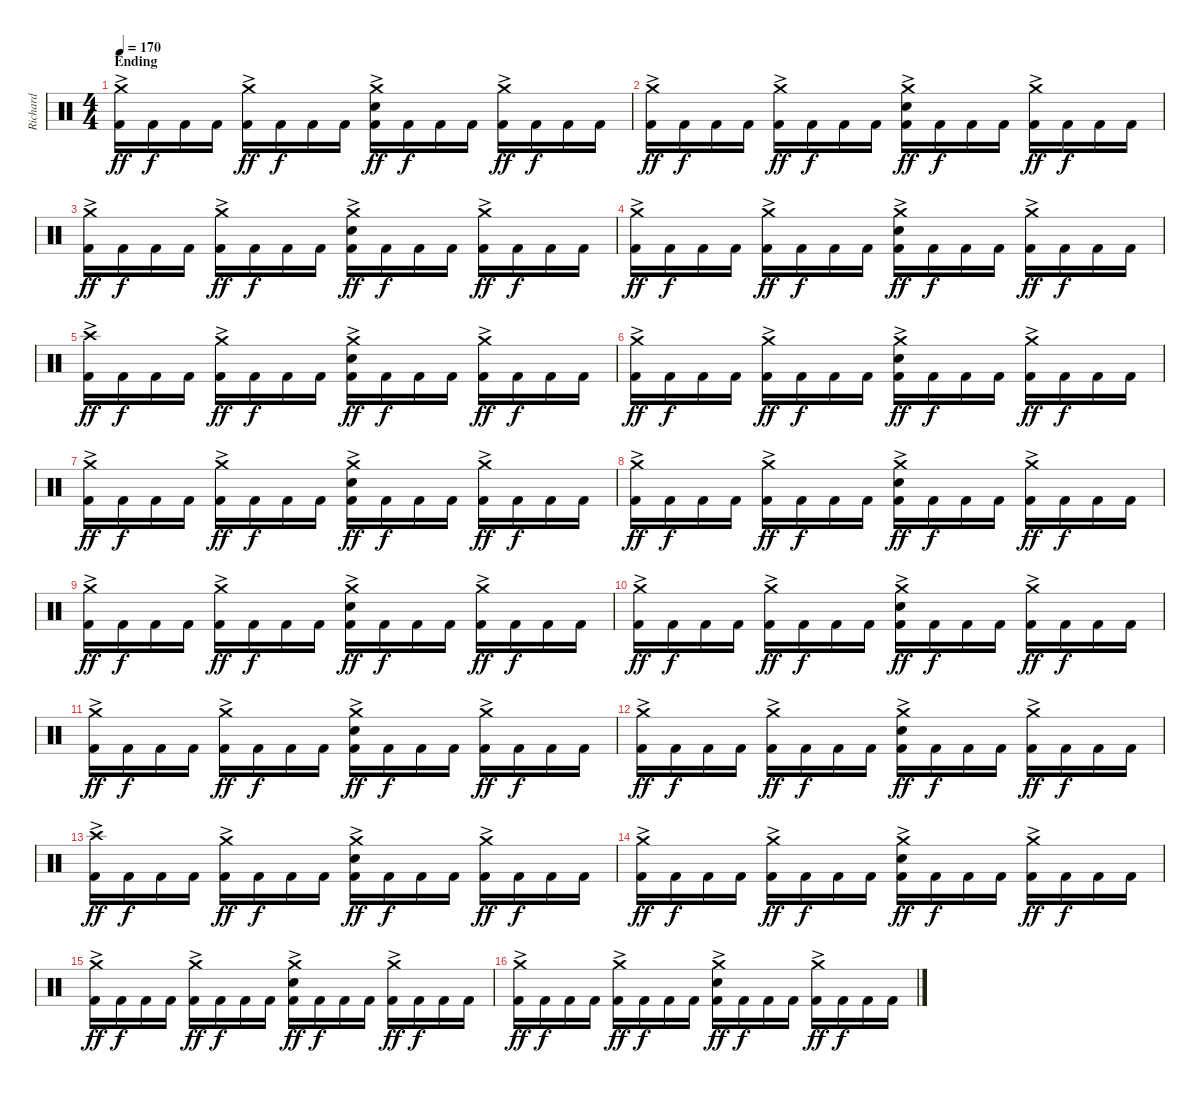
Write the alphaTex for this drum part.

\track ("Richard" "Richard") {instrument percussion}
\staff {score}
\articulation defaults
\ts (4 4)
\section ("" "Ending")
\tempo 170
\clef neutral
\ks c
("Crash medium (hit)" "Kick (hit) 2"{ac}).16{dy ff} "Kick (hit) 2".16{dy f} "Kick (hit) 2".16 "Kick (hit) 2".16 ("Crash medium (hit)" "Kick (hit) 2"{ac}).16{dy ff} "Kick (hit) 2".16{dy f} "Kick (hit) 2".16 "Kick (hit) 2".16 ("Crash medium (hit)" "Electric Snare (hit)" "Kick (hit) 2"{ac}).16{dy ff} "Kick (hit) 2".16{dy f} "Kick (hit) 2".16 "Kick (hit) 2".16 ("Crash medium (hit)" "Kick (hit) 2"{ac}).16{dy ff} "Kick (hit) 2".16{dy f} "Kick (hit) 2".16 "Kick (hit) 2".16 |
("Crash medium (hit)" "Kick (hit) 2"{ac}).16{dy ff} "Kick (hit) 2".16{dy f} "Kick (hit) 2".16 "Kick (hit) 2".16 ("Crash medium (hit)" "Kick (hit) 2"{ac}).16{dy ff} "Kick (hit) 2".16{dy f} "Kick (hit) 2".16 "Kick (hit) 2".16 ("Crash medium (hit)" "Electric Snare (hit)" "Kick (hit) 2"{ac}).16{dy ff} "Kick (hit) 2".16{dy f} "Kick (hit) 2".16 "Kick (hit) 2".16 ("Crash medium (hit)" "Kick (hit) 2"{ac}).16{dy ff} "Kick (hit) 2".16{dy f} "Kick (hit) 2".16 "Kick (hit) 2".16 |
("Crash medium (hit)" "Kick (hit) 2"{ac}).16{dy ff} "Kick (hit) 2".16{dy f} "Kick (hit) 2".16 "Kick (hit) 2".16 ("Crash medium (hit)" "Kick (hit) 2"{ac}).16{dy ff} "Kick (hit) 2".16{dy f} "Kick (hit) 2".16 "Kick (hit) 2".16 ("Crash medium (hit)" "Electric Snare (hit)" "Kick (hit) 2"{ac}).16{dy ff} "Kick (hit) 2".16{dy f} "Kick (hit) 2".16 "Kick (hit) 2".16 ("Crash medium (hit)" "Kick (hit) 2"{ac}).16{dy ff} "Kick (hit) 2".16{dy f} "Kick (hit) 2".16 "Kick (hit) 2".16 |
("Crash medium (hit)" "Kick (hit) 2"{ac}).16{dy ff} "Kick (hit) 2".16{dy f} "Kick (hit) 2".16 "Kick (hit) 2".16 ("Crash medium (hit)" "Kick (hit) 2"{ac}).16{dy ff} "Kick (hit) 2".16{dy f} "Kick (hit) 2".16 "Kick (hit) 2".16 ("Crash medium (hit)" "Electric Snare (hit)" "Kick (hit) 2"{ac}).16{dy ff} "Kick (hit) 2".16{dy f} "Kick (hit) 2".16 "Kick (hit) 2".16 ("Crash medium (hit)" "Kick (hit) 2"{ac}).16{dy ff} "Kick (hit) 2".16{dy f} "Kick (hit) 2".16 "Kick (hit) 2".16 |
("Crash high (hit)" "Kick (hit) 2"{ac}).16{dy ff} "Kick (hit) 2".16{dy f} "Kick (hit) 2".16 "Kick (hit) 2".16 ("Crash medium (hit)" "Kick (hit) 2"{ac}).16{dy ff} "Kick (hit) 2".16{dy f} "Kick (hit) 2".16 "Kick (hit) 2".16 ("Crash medium (hit)" "Electric Snare (hit)" "Kick (hit) 2"{ac}).16{dy ff} "Kick (hit) 2".16{dy f} "Kick (hit) 2".16 "Kick (hit) 2".16 ("Crash medium (hit)" "Kick (hit) 2"{ac}).16{dy ff} "Kick (hit) 2".16{dy f} "Kick (hit) 2".16 "Kick (hit) 2".16 |
("Crash medium (hit)" "Kick (hit) 2"{ac}).16{dy ff} "Kick (hit) 2".16{dy f} "Kick (hit) 2".16 "Kick (hit) 2".16 ("Crash medium (hit)" "Kick (hit) 2"{ac}).16{dy ff} "Kick (hit) 2".16{dy f} "Kick (hit) 2".16 "Kick (hit) 2".16 ("Crash medium (hit)" "Electric Snare (hit)" "Kick (hit) 2"{ac}).16{dy ff} "Kick (hit) 2".16{dy f} "Kick (hit) 2".16 "Kick (hit) 2".16 ("Crash medium (hit)" "Kick (hit) 2"{ac}).16{dy ff} "Kick (hit) 2".16{dy f} "Kick (hit) 2".16 "Kick (hit) 2".16 |
("Crash medium (hit)" "Kick (hit) 2"{ac}).16{dy ff} "Kick (hit) 2".16{dy f} "Kick (hit) 2".16 "Kick (hit) 2".16 ("Crash medium (hit)" "Kick (hit) 2"{ac}).16{dy ff} "Kick (hit) 2".16{dy f} "Kick (hit) 2".16 "Kick (hit) 2".16 ("Crash medium (hit)" "Electric Snare (hit)" "Kick (hit) 2"{ac}).16{dy ff} "Kick (hit) 2".16{dy f} "Kick (hit) 2".16 "Kick (hit) 2".16 ("Crash medium (hit)" "Kick (hit) 2"{ac}).16{dy ff} "Kick (hit) 2".16{dy f} "Kick (hit) 2".16 "Kick (hit) 2".16 |
("Crash medium (hit)" "Kick (hit) 2"{ac}).16{dy ff} "Kick (hit) 2".16{dy f} "Kick (hit) 2".16 "Kick (hit) 2".16 ("Crash medium (hit)" "Kick (hit) 2"{ac}).16{dy ff} "Kick (hit) 2".16{dy f} "Kick (hit) 2".16 "Kick (hit) 2".16 ("Crash medium (hit)" "Electric Snare (hit)" "Kick (hit) 2"{ac}).16{dy ff} "Kick (hit) 2".16{dy f} "Kick (hit) 2".16 "Kick (hit) 2".16 ("Crash medium (hit)" "Kick (hit) 2"{ac}).16{dy ff} "Kick (hit) 2".16{dy f} "Kick (hit) 2".16 "Kick (hit) 2".16 |
("Crash medium (hit)" "Kick (hit) 2"{ac}).16{dy ff} "Kick (hit) 2".16{dy f} "Kick (hit) 2".16 "Kick (hit) 2".16 ("Crash medium (hit)" "Kick (hit) 2"{ac}).16{dy ff} "Kick (hit) 2".16{dy f} "Kick (hit) 2".16 "Kick (hit) 2".16 ("Crash medium (hit)" "Electric Snare (hit)" "Kick (hit) 2"{ac}).16{dy ff} "Kick (hit) 2".16{dy f} "Kick (hit) 2".16 "Kick (hit) 2".16 ("Crash medium (hit)" "Kick (hit) 2"{ac}).16{dy ff} "Kick (hit) 2".16{dy f} "Kick (hit) 2".16 "Kick (hit) 2".16 |
("Crash medium (hit)" "Kick (hit) 2"{ac}).16{dy ff} "Kick (hit) 2".16{dy f} "Kick (hit) 2".16 "Kick (hit) 2".16 ("Crash medium (hit)" "Kick (hit) 2"{ac}).16{dy ff} "Kick (hit) 2".16{dy f} "Kick (hit) 2".16 "Kick (hit) 2".16 ("Crash medium (hit)" "Electric Snare (hit)" "Kick (hit) 2"{ac}).16{dy ff} "Kick (hit) 2".16{dy f} "Kick (hit) 2".16 "Kick (hit) 2".16 ("Crash medium (hit)" "Kick (hit) 2"{ac}).16{dy ff} "Kick (hit) 2".16{dy f} "Kick (hit) 2".16 "Kick (hit) 2".16 |
("Crash medium (hit)" "Kick (hit) 2"{ac}).16{dy ff} "Kick (hit) 2".16{dy f} "Kick (hit) 2".16 "Kick (hit) 2".16 ("Crash medium (hit)" "Kick (hit) 2"{ac}).16{dy ff} "Kick (hit) 2".16{dy f} "Kick (hit) 2".16 "Kick (hit) 2".16 ("Crash medium (hit)" "Electric Snare (hit)" "Kick (hit) 2"{ac}).16{dy ff} "Kick (hit) 2".16{dy f} "Kick (hit) 2".16 "Kick (hit) 2".16 ("Crash medium (hit)" "Kick (hit) 2"{ac}).16{dy ff} "Kick (hit) 2".16{dy f} "Kick (hit) 2".16 "Kick (hit) 2".16 |
("Crash medium (hit)" "Kick (hit) 2"{ac}).16{dy ff} "Kick (hit) 2".16{dy f} "Kick (hit) 2".16 "Kick (hit) 2".16 ("Crash medium (hit)" "Kick (hit) 2"{ac}).16{dy ff} "Kick (hit) 2".16{dy f} "Kick (hit) 2".16 "Kick (hit) 2".16 ("Crash medium (hit)" "Electric Snare (hit)" "Kick (hit) 2"{ac}).16{dy ff} "Kick (hit) 2".16{dy f} "Kick (hit) 2".16 "Kick (hit) 2".16 ("Crash medium (hit)" "Kick (hit) 2"{ac}).16{dy ff} "Kick (hit) 2".16{dy f} "Kick (hit) 2".16 "Kick (hit) 2".16 |
("Crash high (hit)" "Kick (hit) 2"{ac}).16{dy ff} "Kick (hit) 2".16{dy f} "Kick (hit) 2".16 "Kick (hit) 2".16 ("Crash medium (hit)" "Kick (hit) 2"{ac}).16{dy ff} "Kick (hit) 2".16{dy f} "Kick (hit) 2".16 "Kick (hit) 2".16 ("Crash medium (hit)" "Electric Snare (hit)" "Kick (hit) 2"{ac}).16{dy ff} "Kick (hit) 2".16{dy f} "Kick (hit) 2".16 "Kick (hit) 2".16 ("Crash medium (hit)" "Kick (hit) 2"{ac}).16{dy ff} "Kick (hit) 2".16{dy f} "Kick (hit) 2".16 "Kick (hit) 2".16 |
("Crash medium (hit)" "Kick (hit) 2"{ac}).16{dy ff} "Kick (hit) 2".16{dy f} "Kick (hit) 2".16 "Kick (hit) 2".16 ("Crash medium (hit)" "Kick (hit) 2"{ac}).16{dy ff} "Kick (hit) 2".16{dy f} "Kick (hit) 2".16 "Kick (hit) 2".16 ("Crash medium (hit)" "Electric Snare (hit)" "Kick (hit) 2"{ac}).16{dy ff} "Kick (hit) 2".16{dy f} "Kick (hit) 2".16 "Kick (hit) 2".16 ("Crash medium (hit)" "Kick (hit) 2"{ac}).16{dy ff} "Kick (hit) 2".16{dy f} "Kick (hit) 2".16 "Kick (hit) 2".16 |
("Crash medium (hit)" "Kick (hit) 2"{ac}).16{dy ff} "Kick (hit) 2".16{dy f} "Kick (hit) 2".16 "Kick (hit) 2".16 ("Crash medium (hit)" "Kick (hit) 2"{ac}).16{dy ff} "Kick (hit) 2".16{dy f} "Kick (hit) 2".16 "Kick (hit) 2".16 ("Crash medium (hit)" "Electric Snare (hit)" "Kick (hit) 2"{ac}).16{dy ff} "Kick (hit) 2".16{dy f} "Kick (hit) 2".16 "Kick (hit) 2".16 ("Crash medium (hit)" "Kick (hit) 2"{ac}).16{dy ff} "Kick (hit) 2".16{dy f} "Kick (hit) 2".16 "Kick (hit) 2".16 |
("Crash medium (hit)" "Kick (hit) 2"{ac}).16{dy ff} "Kick (hit) 2".16{dy f} "Kick (hit) 2".16 "Kick (hit) 2".16 ("Crash medium (hit)" "Kick (hit) 2"{ac}).16{dy ff} "Kick (hit) 2".16{dy f} "Kick (hit) 2".16 "Kick (hit) 2".16 ("Crash medium (hit)" "Electric Snare (hit)" "Kick (hit) 2"{ac}).16{dy ff} "Kick (hit) 2".16{dy f} "Kick (hit) 2".16 "Kick (hit) 2".16 ("Crash medium (hit)" "Kick (hit) 2"{ac}).16{dy ff} "Kick (hit) 2".16{dy f} "Kick (hit) 2".16 "Kick (hit) 2".16
